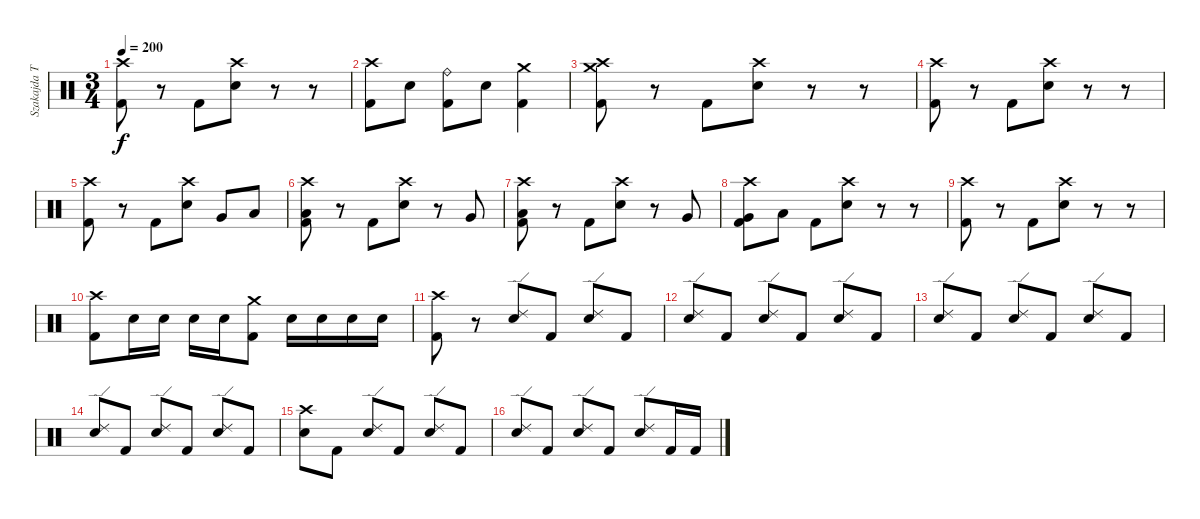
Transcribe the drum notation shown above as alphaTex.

\track ("Szakajda Tibi" "Szakajda T") {instrument percussion}
\staff {score}
\articulation defaults
\ts (3 4)
\tempo 200
\clef neutral
\ks c
("Crash high (hit)" "Kick (hit) 2").8{dy f} r.8 "Kick (hit) 2".8 ("Crash high (hit)" "Electric Snare (hit)").8 r.8 r.8 |
("Crash high (hit)" "Kick (hit) 2").8 "Electric Snare (hit)".8 ("Ride (bell)" "Kick (hit) 2").8 "Electric Snare (hit)".8 ("Crash medium (hit)" "Kick (hit) 2").4 |
("Crash high (hit)" "Crash medium (hit)" "Kick (hit) 2").8 r.8 "Kick (hit) 2".8 ("Crash high (hit)" "Electric Snare (hit)").8 r.8 r.8 |
("Crash high (hit)" "Kick (hit) 2").8 r.8 "Kick (hit) 2".8 ("Crash high (hit)" "Electric Snare (hit)").8 r.8 r.8 |
("Crash high (hit)" "Kick (hit) 2").8 r.8 "Kick (hit) 2".8 ("Crash high (hit)" "Electric Snare (hit)").8 "Very Low Tom (hit)".8 "Low Tom (hit)".8 |
("Crash high (hit)" "Low Floor Tom (hit)" "Kick (hit) 2").8 r.8 "Kick (hit) 2".8 ("Crash high (hit)" "Electric Snare (hit)").8 r.8 "Very Low Tom (hit)".8 |
("Crash high (hit)" "Low Tom (hit)" "Kick (hit) 2").8 r.8 "Kick (hit) 2".8 ("Crash high (hit)" "Electric Snare (hit)").8 r.8 "Very Low Tom (hit)".8 |
("Crash high (hit)" "Very Low Tom (hit)" "Kick (hit) 2").8 "Low Tom (hit)".8 "Kick (hit) 2".8 ("Crash high (hit)" "Electric Snare (hit)").8 r.8 r.8 |
("Crash high (hit)" "Kick (hit) 2").8 r.8 "Kick (hit) 2".8 ("Crash high (hit)" "Electric Snare (hit)").8 r.8 r.8 |
("Crash high (hit)" "Kick (hit) 2").8 "Electric Snare (hit)".16 "Electric Snare (hit)".16 "Electric Snare (hit)".16 "Electric Snare (hit)".16 ("Crash medium (hit)" "Kick (hit) 2").8 "Electric Snare (hit)".16 "Electric Snare (hit)".16 "Electric Snare (hit)".16 "Electric Snare (hit)".16 |
("Crash high (hit)" "Kick (hit) 2").8 r.8 ("Ride (edge) 2" "Electric Snare (hit)").8 "Kick (hit) 2".8 ("Ride (edge) 2" "Electric Snare (hit)").8 "Kick (hit) 2".8 |
("Ride (edge) 2" "Electric Snare (hit)").8 "Kick (hit) 2".8 ("Ride (edge) 2" "Electric Snare (hit)").8 "Kick (hit) 2".8 ("Ride (edge) 2" "Electric Snare (hit)").8 "Kick (hit) 2".8 |
("Ride (edge) 2" "Electric Snare (hit)").8 "Kick (hit) 2".8 ("Ride (edge) 2" "Electric Snare (hit)").8 "Kick (hit) 2".8 ("Ride (edge) 2" "Electric Snare (hit)").8 "Kick (hit) 2".8 |
("Ride (edge) 2" "Electric Snare (hit)").8 "Kick (hit) 2".8 ("Ride (edge) 2" "Electric Snare (hit)").8 "Kick (hit) 2".8 ("Ride (edge) 2" "Electric Snare (hit)").8 "Kick (hit) 2".8 |
("Crash high (hit)" "Electric Snare (hit)").8 "Kick (hit) 2".8 ("Ride (edge) 2" "Electric Snare (hit)").8 "Kick (hit) 2".8 ("Ride (edge) 2" "Electric Snare (hit)").8 "Kick (hit) 2".8 |
("Ride (edge) 2" "Electric Snare (hit)").8 "Kick (hit) 2".8 ("Ride (edge) 2" "Electric Snare (hit)").8 "Kick (hit) 2".8 ("Ride (edge) 2" "Electric Snare (hit)").8 "Kick (hit) 2".16 "Kick (hit) 2".16
